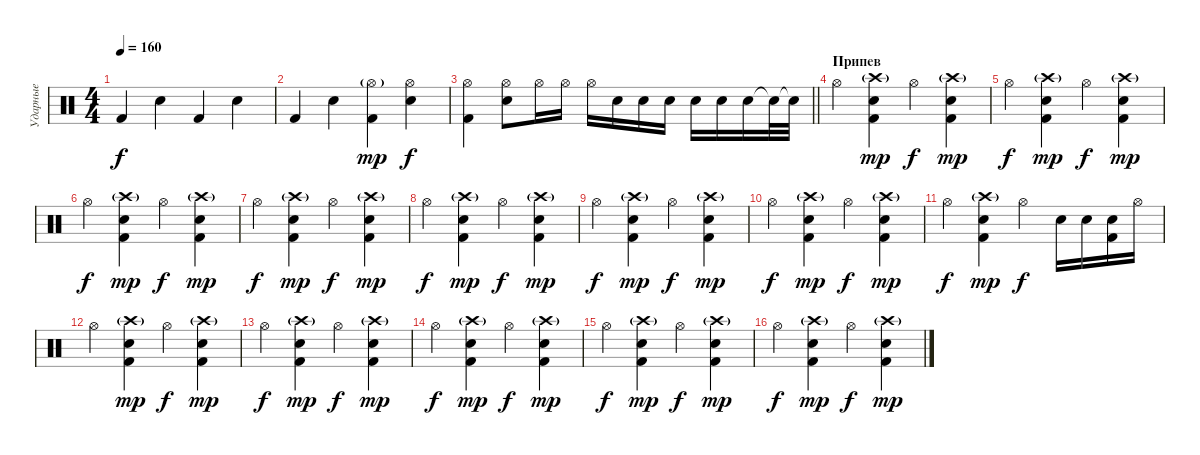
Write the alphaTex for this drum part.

\track ("Ударные" "Ударные") {instrument percussion}
\staff {score}
\articulation defaults
\ts (4 4)
\tempo 160
\clef neutral
\ks c "Kick (hit) 2".4{dy f} "Electric Snare (hit)".4 "Kick (hit) 2".4 "Electric Snare (hit)".4
|
"Kick (hit) 2".4 "Electric Snare (hit)".4 ("Kick (hit) 2" "Hi-Hat (open)"{g}).4{dy mp} ("Electric Snare (hit)" "Hi-Hat (open)").4{dy f} |
\barLineRight lightlight
("Kick (hit) 2" "Hi-Hat (open)").4 ("Snare (hit) 2" "Hi-Hat (open)").8 "Hi-Hat (open)".16 "Hi-Hat (open)".16 "Hi-Hat (open)".16 "Electric Snare (hit)".16 "Electric Snare (hit)".16 "Electric Snare (hit)".16 "Electric Snare (hit)".16 "Electric Snare (hit)".16 "Electric Snare (hit)".16 "Snare (hit)"{t}.32 "Snare (hit)"{t}.32 |
\section ("" "Припев")
"Hi-Hat (open)".4 ("Crash high (hit)"{g} "Kick (hit) 2" "Snare (hit) 2").4{dy mp} "Hi-Hat (open)".4{dy f} ("Crash high (hit)"{g} "Kick (hit) 2" "Snare (hit) 2").4{dy mp} |
"Hi-Hat (open)".4{dy f} ("Crash high (hit)"{g} "Kick (hit) 2" "Snare (hit) 2").4{dy mp} "Hi-Hat (open)".4{dy f} ("Crash high (hit)"{g} "Kick (hit) 2" "Snare (hit) 2").4{dy mp} |
"Hi-Hat (open)".4{dy f} ("Crash high (hit)"{g} "Kick (hit) 2" "Snare (hit) 2").4{dy mp} "Hi-Hat (open)".4{dy f} ("Crash high (hit)"{g} "Kick (hit) 2" "Snare (hit) 2").4{dy mp} |
"Hi-Hat (open)".4{dy f} ("Crash high (hit)"{g} "Kick (hit) 2" "Snare (hit) 2").4{dy mp} "Hi-Hat (open)".4{dy f} ("Crash high (hit)"{g} "Kick (hit) 2" "Snare (hit) 2").4{dy mp} |
"Hi-Hat (open)".4{dy f} ("Crash high (hit)"{g} "Kick (hit) 2" "Snare (hit) 2").4{dy mp} "Hi-Hat (open)".4{dy f} ("Crash high (hit)"{g} "Kick (hit) 2" "Snare (hit) 2").4{dy mp} |
"Hi-Hat (open)".4{dy f} ("Crash high (hit)"{g} "Kick (hit) 2" "Snare (hit) 2").4{dy mp} "Hi-Hat (open)".4{dy f} ("Crash high (hit)"{g} "Kick (hit) 2" "Snare (hit) 2").4{dy mp} |
"Hi-Hat (open)".4{dy f} ("Crash high (hit)"{g} "Kick (hit) 2" "Snare (hit) 2").4{dy mp} "Hi-Hat (open)".4{dy f} ("Crash high (hit)"{g} "Kick (hit) 2" "Snare (hit) 2").4{dy mp} |
"Hi-Hat (open)".4{dy f} ("Crash high (hit)"{g} "Kick (hit) 2" "Snare (hit) 2").4{dy mp} "Hi-Hat (open)".4{dy f} "Electric Snare (hit)".16 "Snare (hit) 2".16 ("Electric Snare (hit)" "Kick (hit) 2").16 "Hi-Hat (open)".16 |
"Hi-Hat (open)".4 ("Crash high (hit)"{g} "Kick (hit) 2" "Snare (hit) 2").4{dy mp} "Hi-Hat (open)".4{dy f} ("Crash high (hit)"{g} "Kick (hit) 2" "Snare (hit) 2").4{dy mp} |
"Hi-Hat (open)".4{dy f} ("Crash high (hit)"{g} "Kick (hit) 2" "Snare (hit) 2").4{dy mp} "Hi-Hat (open)".4{dy f} ("Crash high (hit)"{g} "Kick (hit) 2" "Snare (hit) 2").4{dy mp} |
"Hi-Hat (open)".4{dy f} ("Crash high (hit)"{g} "Kick (hit) 2" "Snare (hit) 2").4{dy mp} "Hi-Hat (open)".4{dy f} ("Crash high (hit)"{g} "Kick (hit) 2" "Snare (hit) 2").4{dy mp} |
"Hi-Hat (open)".4{dy f} ("Crash high (hit)"{g} "Kick (hit) 2" "Snare (hit) 2").4{dy mp} "Hi-Hat (open)".4{dy f} ("Crash high (hit)"{g} "Kick (hit) 2" "Snare (hit) 2").4{dy mp} |
"Hi-Hat (open)".4{dy f} ("Crash high (hit)"{g} "Kick (hit) 2" "Snare (hit) 2").4{dy mp} "Hi-Hat (open)".4{dy f} ("Crash high (hit)"{g} "Kick (hit) 2" "Snare (hit) 2").4{dy mp}
